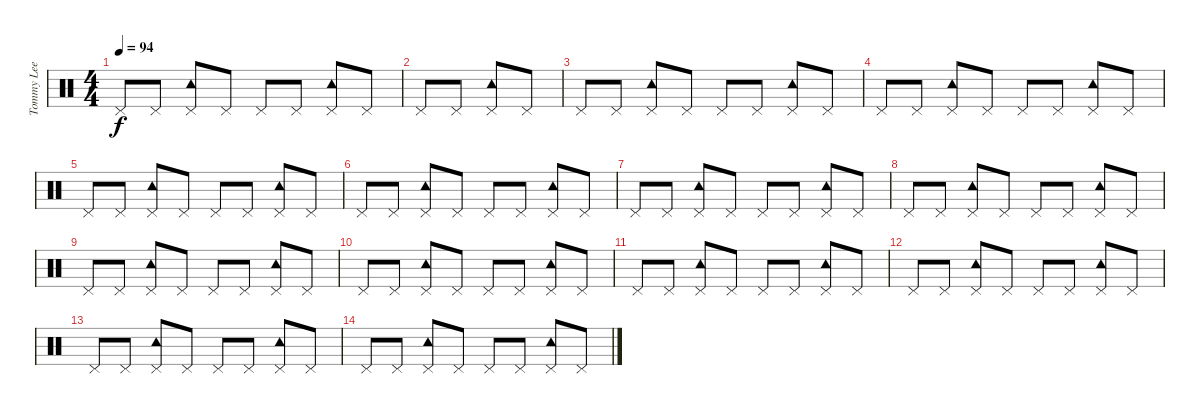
\track ("Tommy Lee" "Tommy Lee") {instrument percussion}
\staff {score}
\articulation defaults
\ts (4 4)
\tempo 94
\clef neutral
\ks c "Pedal Hi-Hat (hit)".8{dy f} "Pedal Hi-Hat (hit)".8
("Pedal Hi-Hat (hit)" "Tambourine (hit)").8 "Pedal Hi-Hat (hit)".8 "Pedal Hi-Hat (hit)".8 "Pedal Hi-Hat (hit)".8 ("Pedal Hi-Hat (hit)" "Tambourine (hit)").8 "Pedal Hi-Hat (hit)".8 |
"Pedal Hi-Hat (hit)".8 "Pedal Hi-Hat (hit)".8 ("Pedal Hi-Hat (hit)" "Tambourine (hit)").8 "Pedal Hi-Hat (hit)".8 |
"Pedal Hi-Hat (hit)".8 "Pedal Hi-Hat (hit)".8 ("Pedal Hi-Hat (hit)" "Tambourine (hit)").8 "Pedal Hi-Hat (hit)".8 "Pedal Hi-Hat (hit)".8 "Pedal Hi-Hat (hit)".8 ("Pedal Hi-Hat (hit)" "Tambourine (hit)").8 "Pedal Hi-Hat (hit)".8 |
"Pedal Hi-Hat (hit)".8 "Pedal Hi-Hat (hit)".8 ("Pedal Hi-Hat (hit)" "Tambourine (hit)").8 "Pedal Hi-Hat (hit)".8 "Pedal Hi-Hat (hit)".8 "Pedal Hi-Hat (hit)".8 ("Pedal Hi-Hat (hit)" "Tambourine (hit)").8 "Pedal Hi-Hat (hit)".8 |
"Pedal Hi-Hat (hit)".8 "Pedal Hi-Hat (hit)".8 ("Pedal Hi-Hat (hit)" "Tambourine (hit)").8 "Pedal Hi-Hat (hit)".8 "Pedal Hi-Hat (hit)".8 "Pedal Hi-Hat (hit)".8 ("Pedal Hi-Hat (hit)" "Tambourine (hit)").8 "Pedal Hi-Hat (hit)".8 |
"Pedal Hi-Hat (hit)".8 "Pedal Hi-Hat (hit)".8 ("Pedal Hi-Hat (hit)" "Tambourine (hit)").8 "Pedal Hi-Hat (hit)".8 "Pedal Hi-Hat (hit)".8 "Pedal Hi-Hat (hit)".8 ("Pedal Hi-Hat (hit)" "Tambourine (hit)").8 "Pedal Hi-Hat (hit)".8 |
"Pedal Hi-Hat (hit)".8 "Pedal Hi-Hat (hit)".8 ("Pedal Hi-Hat (hit)" "Tambourine (hit)").8 "Pedal Hi-Hat (hit)".8 "Pedal Hi-Hat (hit)".8 "Pedal Hi-Hat (hit)".8 ("Pedal Hi-Hat (hit)" "Tambourine (hit)").8 "Pedal Hi-Hat (hit)".8 |
"Pedal Hi-Hat (hit)".8 "Pedal Hi-Hat (hit)".8 ("Pedal Hi-Hat (hit)" "Tambourine (hit)").8 "Pedal Hi-Hat (hit)".8 "Pedal Hi-Hat (hit)".8 "Pedal Hi-Hat (hit)".8 ("Pedal Hi-Hat (hit)" "Tambourine (hit)").8 "Pedal Hi-Hat (hit)".8 |
"Pedal Hi-Hat (hit)".8 "Pedal Hi-Hat (hit)".8 ("Pedal Hi-Hat (hit)" "Tambourine (hit)").8 "Pedal Hi-Hat (hit)".8 "Pedal Hi-Hat (hit)".8 "Pedal Hi-Hat (hit)".8 ("Pedal Hi-Hat (hit)" "Tambourine (hit)").8 "Pedal Hi-Hat (hit)".8 |
"Pedal Hi-Hat (hit)".8 "Pedal Hi-Hat (hit)".8 ("Pedal Hi-Hat (hit)" "Tambourine (hit)").8 "Pedal Hi-Hat (hit)".8 "Pedal Hi-Hat (hit)".8 "Pedal Hi-Hat (hit)".8 ("Pedal Hi-Hat (hit)" "Tambourine (hit)").8 "Pedal Hi-Hat (hit)".8 |
"Pedal Hi-Hat (hit)".8 "Pedal Hi-Hat (hit)".8 ("Pedal Hi-Hat (hit)" "Tambourine (hit)").8 "Pedal Hi-Hat (hit)".8 "Pedal Hi-Hat (hit)".8 "Pedal Hi-Hat (hit)".8 ("Pedal Hi-Hat (hit)" "Tambourine (hit)").8 "Pedal Hi-Hat (hit)".8 |
"Pedal Hi-Hat (hit)".8 "Pedal Hi-Hat (hit)".8 ("Pedal Hi-Hat (hit)" "Tambourine (hit)").8 "Pedal Hi-Hat (hit)".8 "Pedal Hi-Hat (hit)".8 "Pedal Hi-Hat (hit)".8 ("Pedal Hi-Hat (hit)" "Tambourine (hit)").8 "Pedal Hi-Hat (hit)".8 |
"Pedal Hi-Hat (hit)".8 "Pedal Hi-Hat (hit)".8 ("Pedal Hi-Hat (hit)" "Tambourine (hit)").8 "Pedal Hi-Hat (hit)".8 "Pedal Hi-Hat (hit)".8 "Pedal Hi-Hat (hit)".8 ("Pedal Hi-Hat (hit)" "Tambourine (hit)").8 "Pedal Hi-Hat (hit)".8 |
"Pedal Hi-Hat (hit)".8 "Pedal Hi-Hat (hit)".8 ("Pedal Hi-Hat (hit)" "Tambourine (hit)").8 "Pedal Hi-Hat (hit)".8 "Pedal Hi-Hat (hit)".8 "Pedal Hi-Hat (hit)".8 ("Pedal Hi-Hat (hit)" "Tambourine (hit)").8 "Pedal Hi-Hat (hit)".8
